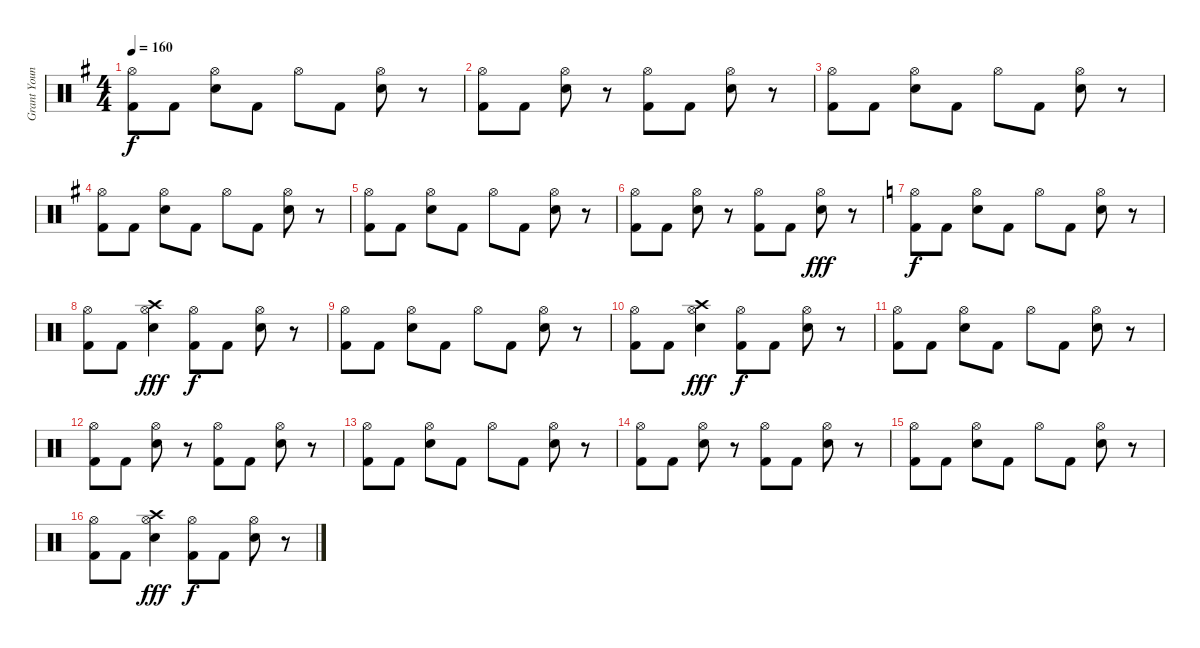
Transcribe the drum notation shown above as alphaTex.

\track ("Grant Young" "Grant Youn") {instrument percussion}
\staff {score}
\articulation defaults
\ts (4 4)
\tempo 160
\clef neutral
\ks g
("Hi-Hat (open)" "Kick (hit) 2").8{dy f} "Kick (hit) 2".8 ("Hi-Hat (open)" "Snare (hit) 2").8 "Kick (hit) 2".8 "Hi-Hat (open)".8 "Kick (hit) 2".8 ("Hi-Hat (open)" "Snare (hit) 2").8 r.8 |
("Hi-Hat (open)" "Kick (hit) 2").8 "Kick (hit) 2".8 ("Hi-Hat (open)" "Snare (hit) 2").8 r.8 ("Kick (hit) 2" "Hi-Hat (open)").8 "Kick (hit) 2".8 ("Hi-Hat (open)" "Snare (hit) 2").8 r.8 |
("Hi-Hat (open)" "Kick (hit) 2").8 "Kick (hit) 2".8 ("Hi-Hat (open)" "Snare (hit) 2").8 "Kick (hit) 2".8 "Hi-Hat (open)".8 "Kick (hit) 2".8 ("Hi-Hat (open)" "Snare (hit) 2").8 r.8 |
("Hi-Hat (open)" "Kick (hit) 2").8 "Kick (hit) 2".8 ("Hi-Hat (open)" "Snare (hit) 2").8 "Kick (hit) 2".8 "Hi-Hat (open)".8 "Kick (hit) 2".8 ("Hi-Hat (open)" "Snare (hit) 2").8 r.8 |
("Kick (hit) 2" "Hi-Hat (open)").8 "Kick (hit) 2".8 ("Hi-Hat (open)" "Snare (hit) 2").8 "Kick (hit) 2".8 "Hi-Hat (open)".8 "Kick (hit) 2".8 ("Hi-Hat (open)" "Snare (hit) 2").8 r.8 |
("Hi-Hat (open)" "Kick (hit) 2").8 "Kick (hit) 2".8 ("Hi-Hat (open)" "Snare (hit) 2").8 r.8 ("Kick (hit) 2" "Hi-Hat (open)").8 "Kick (hit) 2".8 ("Snare (hit) 2" "Hi-Hat (open)").8{dy fff} r.8 |
\ks c
("Hi-Hat (open)" "Kick (hit) 2").8{dy f} "Kick (hit) 2".8 ("Hi-Hat (open)" "Snare (hit) 2").8 "Kick (hit) 2".8 "Hi-Hat (open)".8 "Kick (hit) 2".8 ("Hi-Hat (open)" "Snare (hit) 2").8 r.8 |
("Hi-Hat (open)" "Kick (hit) 2").8 "Kick (hit) 2".8 ("Crash high (hit)" "Hi-Hat (open)" "Snare (hit) 2").4{dy fff} ("Kick (hit) 2" "Hi-Hat (open)").8{dy f} "Kick (hit) 2".8 ("Hi-Hat (open)" "Snare (hit) 2").8 r.8 |
("Hi-Hat (open)" "Kick (hit) 2").8 "Kick (hit) 2".8 ("Hi-Hat (open)" "Snare (hit) 2").8 "Kick (hit) 2".8 "Hi-Hat (open)".8 "Kick (hit) 2".8 ("Hi-Hat (open)" "Snare (hit) 2").8 r.8 |
("Hi-Hat (open)" "Kick (hit) 2").8 "Kick (hit) 2".8 ("Crash high (hit)" "Hi-Hat (open)" "Snare (hit) 2").4{dy fff} ("Kick (hit) 2" "Hi-Hat (open)").8{dy f} "Kick (hit) 2".8 ("Hi-Hat (open)" "Snare (hit) 2").8 r.8 |
("Hi-Hat (open)" "Kick (hit) 2").8 "Kick (hit) 2".8 ("Hi-Hat (open)" "Snare (hit) 2").8 "Kick (hit) 2".8 "Hi-Hat (open)".8 "Kick (hit) 2".8 ("Hi-Hat (open)" "Snare (hit) 2").8 r.8 |
("Hi-Hat (open)" "Kick (hit) 2").8 "Kick (hit) 2".8 ("Hi-Hat (open)" "Snare (hit) 2").8 r.8 ("Kick (hit) 2" "Hi-Hat (open)").8 "Kick (hit) 2".8 ("Hi-Hat (open)" "Snare (hit) 2").8 r.8 |
("Hi-Hat (open)" "Kick (hit) 2").8 "Kick (hit) 2".8 ("Hi-Hat (open)" "Snare (hit) 2").8 "Kick (hit) 2".8 "Hi-Hat (open)".8 "Kick (hit) 2".8 ("Hi-Hat (open)" "Snare (hit) 2").8 r.8 |
("Hi-Hat (open)" "Kick (hit) 2").8 "Kick (hit) 2".8 ("Hi-Hat (open)" "Snare (hit) 2").8 r.8 ("Kick (hit) 2" "Hi-Hat (open)").8 "Kick (hit) 2".8 ("Hi-Hat (open)" "Snare (hit) 2").8 r.8 |
("Hi-Hat (open)" "Kick (hit) 2").8 "Kick (hit) 2".8 ("Hi-Hat (open)" "Snare (hit) 2").8 "Kick (hit) 2".8 "Hi-Hat (open)".8 "Kick (hit) 2".8 ("Hi-Hat (open)" "Snare (hit) 2").8 r.8 |
("Hi-Hat (open)" "Kick (hit) 2").8 "Kick (hit) 2".8 ("Crash high (hit)" "Hi-Hat (open)" "Snare (hit) 2").4{dy fff} ("Kick (hit) 2" "Hi-Hat (open)").8{dy f} "Kick (hit) 2".8 ("Hi-Hat (open)" "Snare (hit) 2").8 r.8
